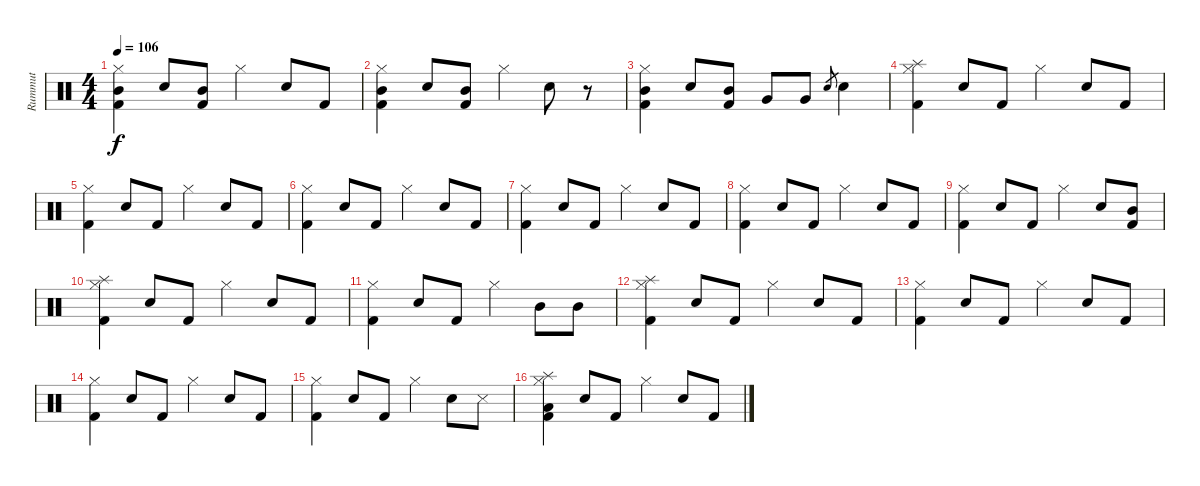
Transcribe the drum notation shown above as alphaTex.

\track ("Rummut" "Rummut") {instrument percussion}
\staff {score}
\articulation defaults
\ts (4 4)
\tempo 106
\clef neutral
\ks c
("Hi-Hat (closed)" "Mid Tom (hit)" "Kick (hit) 2").4{dy f} "Electric Snare (hit)".8 ("Mid Tom (hit)" "Kick (hit) 2").8 "Hi-Hat (closed)".4 "Electric Snare (hit)".8 "Kick (hit) 2".8 |
("Hi-Hat (closed)" "Mid Tom (hit)" "Kick (hit) 2").4 "Electric Snare (hit)".8 ("Mid Tom (hit)" "Kick (hit) 2").8 "Hi-Hat (closed)".4 "Electric Snare (hit)".8 r.8 |
("Hi-Hat (closed)" "Mid Tom (hit)" "Kick (hit) 2").4 "Electric Snare (hit)".8 ("Mid Tom (hit)" "Kick (hit) 2").8 "Very Low Tom (hit)".8 "Very Low Tom (hit)".8 "Electric Snare (hit)".8{gr} "Electric Snare (hit)".4 |
("Splash (hit)" "Hi-Hat (closed)" "Kick (hit) 2").4 "Electric Snare (hit)".8 "Kick (hit) 2".8 "Hi-Hat (closed)".4 "Electric Snare (hit)".8 "Kick (hit) 2".8 |
("Hi-Hat (closed)" "Kick (hit) 2").4 "Electric Snare (hit)".8 "Kick (hit) 2".8 "Hi-Hat (closed)".4 "Electric Snare (hit)".8 "Kick (hit) 2".8 |
("Hi-Hat (closed)" "Kick (hit) 2").4 "Electric Snare (hit)".8 "Kick (hit) 2".8 "Hi-Hat (closed)".4 "Electric Snare (hit)".8 "Kick (hit) 2".8 |
("Hi-Hat (closed)" "Kick (hit) 2").4 "Electric Snare (hit)".8 "Kick (hit) 2".8 "Hi-Hat (closed)".4 "Electric Snare (hit)".8 "Kick (hit) 2".8 |
("Hi-Hat (closed)" "Kick (hit) 2").4 "Electric Snare (hit)".8 "Kick (hit) 2".8 "Hi-Hat (closed)".4 "Electric Snare (hit)".8 "Kick (hit) 2".8 |
("Hi-Hat (closed)" "Kick (hit) 2").4 "Electric Snare (hit)".8 "Kick (hit) 2".8 "Hi-Hat (closed)".4 "Electric Snare (hit)".8 ("Mid Tom (hit)" "Kick (hit) 2").8 |
("Splash (hit)" "Hi-Hat (closed)" "Kick (hit) 2").4 "Electric Snare (hit)".8 "Kick (hit) 2".8 "Hi-Hat (closed)".4 "Electric Snare (hit)".8 "Kick (hit) 2".8 |
("Hi-Hat (closed)" "Kick (hit) 2").4 "Electric Snare (hit)".8 "Kick (hit) 2".8 "Hi-Hat (closed)".4 "Mid Tom (hit)".8 "Mid Tom (hit)".8 |
("Splash (hit)" "Hi-Hat (closed)" "Kick (hit) 2").4 "Electric Snare (hit)".8 "Kick (hit) 2".8 "Hi-Hat (closed)".4 "Electric Snare (hit)".8 "Kick (hit) 2".8 |
("Hi-Hat (closed)" "Kick (hit) 2").4 "Electric Snare (hit)".8 "Kick (hit) 2".8 "Hi-Hat (closed)".4 "Electric Snare (hit)".8 "Kick (hit) 2".8 |
("Hi-Hat (closed)" "Kick (hit) 2").4 "Electric Snare (hit)".8 "Kick (hit) 2".8 "Hi-Hat (closed)".4 "Electric Snare (hit)".8 "Kick (hit) 2".8 |
("Hi-Hat (closed)" "Kick (hit) 2").4 "Electric Snare (hit)".8 "Kick (hit) 2".8 "Hi-Hat (closed)".4 "Electric Snare (hit)".8 "Snare (side stick) 3".8 |
("Splash (hit)" "Hi-Hat (closed)" "Low Tom (hit)" "Kick (hit) 2").4 "Electric Snare (hit)".8 "Kick (hit) 2".8 "Hi-Hat (closed)".4 "Electric Snare (hit)".8 "Kick (hit) 2".8
